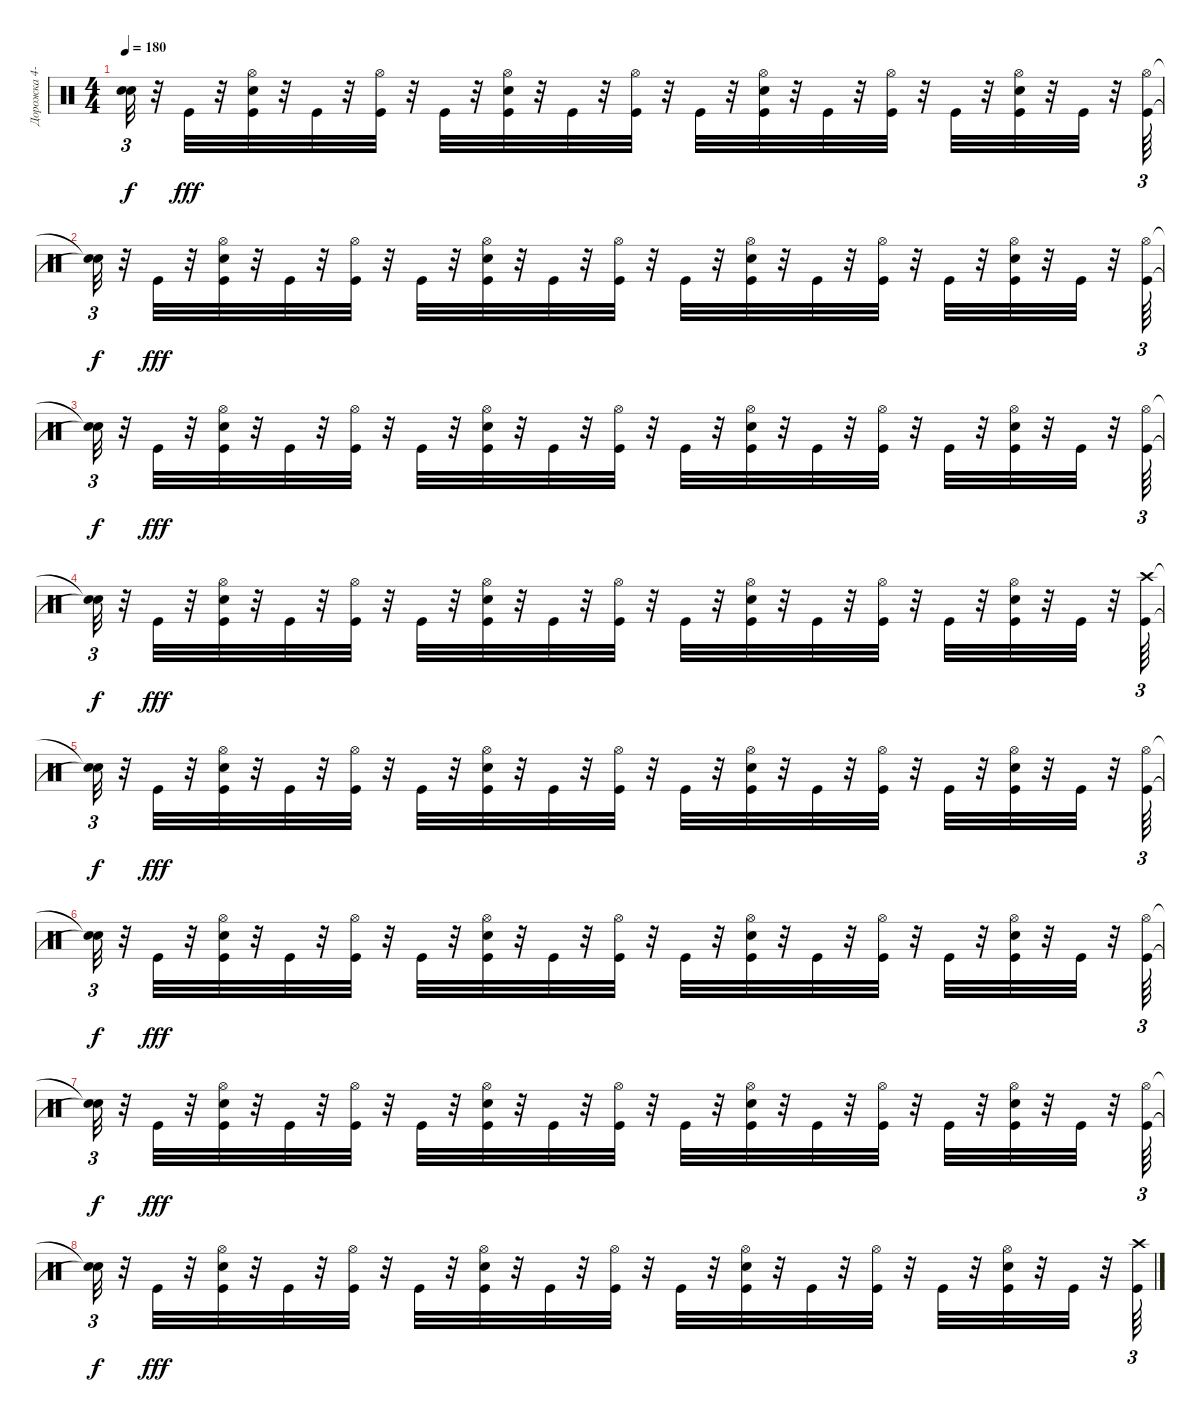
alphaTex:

\track ("Дорожка 4-10-11" "Дорожка 4-") {instrument percussion}
\staff {score}
\articulation defaults
\ts (4 4)
\tempo 180
\clef neutral
\ks c
("Snare (hit)"{t} "Snare (hit)"{t}).32{tu (3 2) dy f} r.32 "Kick (hit)".32{dy fff} r.32 ("Hi-Hat (open)" "Snare (hit) 2" "Kick (hit)").32 r.32 "Kick (hit)".32 r.32 ("Hi-Hat (open)" "Kick (hit)").32 r.32 "Kick (hit)".32 r.32 ("Snare (hit) 2" "Hi-Hat (open)" "Kick (hit)").32 r.32 "Kick (hit)".32 r.32 ("Hi-Hat (open)" "Kick (hit)").32 r.32 "Kick (hit)".32 r.32 ("Hi-Hat (open)" "Snare (hit) 2" "Kick (hit)").32 r.32 "Kick (hit)".32 r.32 ("Hi-Hat (open)" "Kick (hit)").32 r.32 "Kick (hit)".32 r.32 ("Hi-Hat (open)" "Snare (hit) 2" "Kick (hit)").32 r.32 "Kick (hit)".32 r.32 ("Hi-Hat (open)" "Kick (hit)").64{tu (3 2)} |
("Snare (hit)"{t} "Snare (hit)"{t}).32{tu (3 2) dy f} r.32 "Kick (hit)".32{dy fff} r.32 ("Hi-Hat (open)" "Snare (hit) 2" "Kick (hit)").32 r.32 "Kick (hit)".32 r.32 ("Hi-Hat (open)" "Kick (hit)").32 r.32 "Kick (hit)".32 r.32 ("Snare (hit) 2" "Hi-Hat (open)" "Kick (hit)").32 r.32 "Kick (hit)".32 r.32 ("Hi-Hat (open)" "Kick (hit)").32 r.32 "Kick (hit)".32 r.32 ("Hi-Hat (open)" "Snare (hit) 2" "Kick (hit)").32 r.32 "Kick (hit)".32 r.32 ("Hi-Hat (open)" "Kick (hit)").32 r.32 "Kick (hit)".32 r.32 ("Hi-Hat (open)" "Snare (hit) 2" "Kick (hit)").32 r.32 "Kick (hit)".32 r.32 ("Hi-Hat (open)" "Kick (hit)").64{tu (3 2)} |
("Snare (hit)"{t} "Snare (hit)"{t}).32{tu (3 2) dy f} r.32 "Kick (hit)".32{dy fff} r.32 ("Hi-Hat (open)" "Snare (hit) 2" "Kick (hit)").32 r.32 "Kick (hit)".32 r.32 ("Hi-Hat (open)" "Kick (hit)").32 r.32 "Kick (hit)".32 r.32 ("Snare (hit) 2" "Hi-Hat (open)" "Kick (hit)").32 r.32 "Kick (hit)".32 r.32 ("Hi-Hat (open)" "Kick (hit)").32 r.32 "Kick (hit)".32 r.32 ("Hi-Hat (open)" "Snare (hit) 2" "Kick (hit)").32 r.32 "Kick (hit)".32 r.32 ("Hi-Hat (open)" "Kick (hit)").32 r.32 "Kick (hit)".32 r.32 ("Hi-Hat (open)" "Snare (hit) 2" "Kick (hit)").32 r.32 "Kick (hit)".32 r.32 ("Hi-Hat (open)" "Kick (hit)").64{tu (3 2)} |
("Snare (hit)"{t} "Snare (hit)"{t}).32{tu (3 2) dy f} r.32 "Kick (hit)".32{dy fff} r.32 ("Hi-Hat (open)" "Snare (hit) 2" "Kick (hit)").32 r.32 "Kick (hit)".32 r.32 ("Hi-Hat (open)" "Kick (hit)").32 r.32 "Kick (hit)".32 r.32 ("Snare (hit) 2" "Hi-Hat (open)" "Kick (hit)").32 r.32 "Kick (hit)".32 r.32 ("Hi-Hat (open)" "Kick (hit)").32 r.32 "Kick (hit)".32 r.32 ("Hi-Hat (open)" "Snare (hit) 2" "Kick (hit)").32 r.32 "Kick (hit)".32 r.32 ("Hi-Hat (open)" "Kick (hit)").32 r.32 "Kick (hit)".32 r.32 ("Hi-Hat (open)" "Snare (hit) 2" "Kick (hit)").32 r.32 "Kick (hit)".32 r.32 ("Crash high (hit)" "Kick (hit)").64{tu (3 2)} |
("Snare (hit)"{t} "Snare (hit)"{t}).32{tu (3 2) dy f} r.32 "Kick (hit)".32{dy fff} r.32 ("Hi-Hat (open)" "Snare (hit) 2" "Kick (hit)").32 r.32 "Kick (hit)".32 r.32 ("Hi-Hat (open)" "Kick (hit)").32 r.32 "Kick (hit)".32 r.32 ("Snare (hit) 2" "Hi-Hat (open)" "Kick (hit)").32 r.32 "Kick (hit)".32 r.32 ("Hi-Hat (open)" "Kick (hit)").32 r.32 "Kick (hit)".32 r.32 ("Hi-Hat (open)" "Snare (hit) 2" "Kick (hit)").32 r.32 "Kick (hit)".32 r.32 ("Hi-Hat (open)" "Kick (hit)").32 r.32 "Kick (hit)".32 r.32 ("Hi-Hat (open)" "Snare (hit) 2" "Kick (hit)").32 r.32 "Kick (hit)".32 r.32 ("Hi-Hat (open)" "Kick (hit)").64{tu (3 2)} |
("Snare (hit)"{t} "Snare (hit)"{t}).32{tu (3 2) dy f} r.32 "Kick (hit)".32{dy fff} r.32 ("Hi-Hat (open)" "Snare (hit) 2" "Kick (hit)").32 r.32 "Kick (hit)".32 r.32 ("Hi-Hat (open)" "Kick (hit)").32 r.32 "Kick (hit)".32 r.32 ("Snare (hit) 2" "Hi-Hat (open)" "Kick (hit)").32 r.32 "Kick (hit)".32 r.32 ("Hi-Hat (open)" "Kick (hit)").32 r.32 "Kick (hit)".32 r.32 ("Hi-Hat (open)" "Snare (hit) 2" "Kick (hit)").32 r.32 "Kick (hit)".32 r.32 ("Hi-Hat (open)" "Kick (hit)").32 r.32 "Kick (hit)".32 r.32 ("Hi-Hat (open)" "Snare (hit) 2" "Kick (hit)").32 r.32 "Kick (hit)".32 r.32 ("Hi-Hat (open)" "Kick (hit)").64{tu (3 2)} |
("Snare (hit)"{t} "Snare (hit)"{t}).32{tu (3 2) dy f} r.32 "Kick (hit)".32{dy fff} r.32 ("Hi-Hat (open)" "Snare (hit) 2" "Kick (hit)").32 r.32 "Kick (hit)".32 r.32 ("Hi-Hat (open)" "Kick (hit)").32 r.32 "Kick (hit)".32 r.32 ("Snare (hit) 2" "Hi-Hat (open)" "Kick (hit)").32 r.32 "Kick (hit)".32 r.32 ("Hi-Hat (open)" "Kick (hit)").32 r.32 "Kick (hit)".32 r.32 ("Hi-Hat (open)" "Snare (hit) 2" "Kick (hit)").32 r.32 "Kick (hit)".32 r.32 ("Hi-Hat (open)" "Kick (hit)").32 r.32 "Kick (hit)".32 r.32 ("Hi-Hat (open)" "Snare (hit) 2" "Kick (hit)").32 r.32 "Kick (hit)".32 r.32 ("Hi-Hat (open)" "Kick (hit)").64{tu (3 2)} |
("Snare (hit)"{t} "Snare (hit)"{t}).32{tu (3 2) dy f} r.32 "Kick (hit)".32{dy fff} r.32 ("Hi-Hat (open)" "Snare (hit) 2" "Kick (hit)").32 r.32 "Kick (hit)".32 r.32 ("Hi-Hat (open)" "Kick (hit)").32 r.32 "Kick (hit)".32 r.32 ("Snare (hit) 2" "Hi-Hat (open)" "Kick (hit)").32 r.32 "Kick (hit)".32 r.32 ("Hi-Hat (open)" "Kick (hit)").32 r.32 "Kick (hit)".32 r.32 ("Hi-Hat (open)" "Snare (hit) 2" "Kick (hit)").32 r.32 "Kick (hit)".32 r.32 ("Hi-Hat (open)" "Kick (hit)").32 r.32 "Kick (hit)".32 r.32 ("Hi-Hat (open)" "Snare (hit) 2" "Kick (hit)").32 r.32 "Kick (hit)".32 r.32 ("Crash high (hit)" "Kick (hit)").64{tu (3 2)}
